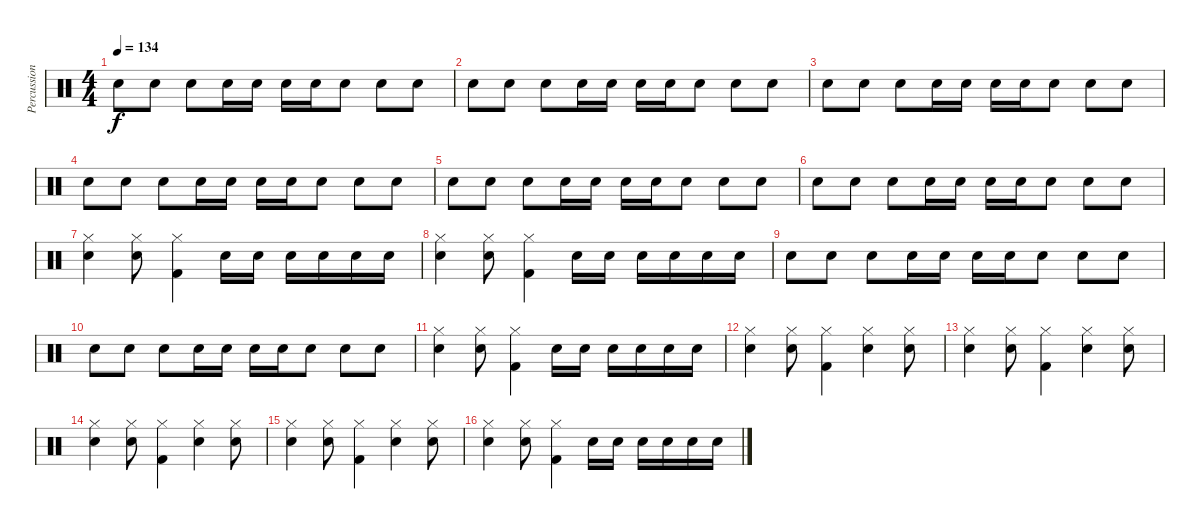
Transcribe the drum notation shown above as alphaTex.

\track ("Percussion" "Percussion") {instrument percussion}
\staff {score}
\articulation defaults
\ts (4 4)
\tempo 134
\clef neutral
\ks c "Electric Snare (hit)".8{dy f} "Electric Snare (hit)".8 "Electric Snare (hit)".8 "Electric Snare (hit)".16 "Electric Snare (hit)".16 "Electric Snare (hit)".16 "Electric Snare (hit)".16 "Electric Snare (hit)".8 "Electric Snare (hit)".8 "Electric Snare (hit)".8
|
"Electric Snare (hit)".8 "Electric Snare (hit)".8 "Electric Snare (hit)".8 "Electric Snare (hit)".16 "Electric Snare (hit)".16 "Electric Snare (hit)".16 "Electric Snare (hit)".16 "Electric Snare (hit)".8 "Electric Snare (hit)".8 "Electric Snare (hit)".8 |
"Electric Snare (hit)".8 "Electric Snare (hit)".8 "Electric Snare (hit)".8 "Electric Snare (hit)".16 "Electric Snare (hit)".16 "Electric Snare (hit)".16 "Electric Snare (hit)".16 "Electric Snare (hit)".8 "Electric Snare (hit)".8 "Electric Snare (hit)".8 |
"Electric Snare (hit)".8 "Electric Snare (hit)".8 "Electric Snare (hit)".8 "Electric Snare (hit)".16 "Electric Snare (hit)".16 "Electric Snare (hit)".16 "Electric Snare (hit)".16 "Electric Snare (hit)".8 "Electric Snare (hit)".8 "Electric Snare (hit)".8 |
"Electric Snare (hit)".8 "Electric Snare (hit)".8 "Electric Snare (hit)".8 "Electric Snare (hit)".16 "Electric Snare (hit)".16 "Electric Snare (hit)".16 "Electric Snare (hit)".16 "Electric Snare (hit)".8 "Electric Snare (hit)".8 "Electric Snare (hit)".8 |
"Electric Snare (hit)".8 "Electric Snare (hit)".8 "Electric Snare (hit)".8 "Electric Snare (hit)".16 "Electric Snare (hit)".16 "Electric Snare (hit)".16 "Electric Snare (hit)".16 "Electric Snare (hit)".8 "Electric Snare (hit)".8 "Electric Snare (hit)".8 |
("Hi-Hat (closed)" "Electric Snare (hit)").4 ("Hi-Hat (closed)" "Electric Snare (hit)").8 ("Hi-Hat (closed)" "Kick (hit) 2").4 "Electric Snare (hit)".16 "Electric Snare (hit)".16 "Electric Snare (hit)".16 "Electric Snare (hit)".16 "Electric Snare (hit)".16 "Electric Snare (hit)".16 |
("Hi-Hat (closed)" "Electric Snare (hit)").4 ("Hi-Hat (closed)" "Electric Snare (hit)").8 ("Hi-Hat (closed)" "Kick (hit) 2").4 "Electric Snare (hit)".16 "Electric Snare (hit)".16 "Electric Snare (hit)".16 "Electric Snare (hit)".16 "Electric Snare (hit)".16 "Electric Snare (hit)".16 |
"Electric Snare (hit)".8 "Electric Snare (hit)".8 "Electric Snare (hit)".8 "Electric Snare (hit)".16 "Electric Snare (hit)".16 "Electric Snare (hit)".16 "Electric Snare (hit)".16 "Electric Snare (hit)".8 "Electric Snare (hit)".8 "Electric Snare (hit)".8 |
"Electric Snare (hit)".8 "Electric Snare (hit)".8 "Electric Snare (hit)".8 "Electric Snare (hit)".16 "Electric Snare (hit)".16 "Electric Snare (hit)".16 "Electric Snare (hit)".16 "Electric Snare (hit)".8 "Electric Snare (hit)".8 "Electric Snare (hit)".8 |
("Hi-Hat (closed)" "Electric Snare (hit)").4 ("Hi-Hat (closed)" "Electric Snare (hit)").8 ("Hi-Hat (closed)" "Kick (hit) 2").4 "Electric Snare (hit)".16 "Electric Snare (hit)".16 "Electric Snare (hit)".16 "Electric Snare (hit)".16 "Electric Snare (hit)".16 "Electric Snare (hit)".16 |
("Hi-Hat (closed)" "Electric Snare (hit)").4 ("Hi-Hat (closed)" "Electric Snare (hit)").8 ("Hi-Hat (closed)" "Kick (hit) 2").4 ("Hi-Hat (closed)" "Electric Snare (hit)").4 ("Hi-Hat (closed)" "Electric Snare (hit)").8 |
("Hi-Hat (closed)" "Electric Snare (hit)").4 ("Hi-Hat (closed)" "Electric Snare (hit)").8 ("Hi-Hat (closed)" "Kick (hit) 2").4 ("Hi-Hat (closed)" "Electric Snare (hit)").4 ("Hi-Hat (closed)" "Electric Snare (hit)").8 |
("Hi-Hat (closed)" "Electric Snare (hit)").4 ("Hi-Hat (closed)" "Electric Snare (hit)").8 ("Hi-Hat (closed)" "Kick (hit) 2").4 ("Hi-Hat (closed)" "Electric Snare (hit)").4 ("Hi-Hat (closed)" "Electric Snare (hit)").8 |
("Hi-Hat (closed)" "Electric Snare (hit)").4 ("Hi-Hat (closed)" "Electric Snare (hit)").8 ("Hi-Hat (closed)" "Kick (hit) 2").4 ("Hi-Hat (closed)" "Electric Snare (hit)").4 ("Hi-Hat (closed)" "Electric Snare (hit)").8 |
("Hi-Hat (closed)" "Electric Snare (hit)").4 ("Hi-Hat (closed)" "Electric Snare (hit)").8 ("Hi-Hat (closed)" "Kick (hit) 2").4 "Electric Snare (hit)".16 "Electric Snare (hit)".16 "Electric Snare (hit)".16 "Electric Snare (hit)".16 "Electric Snare (hit)".16 "Electric Snare (hit)".16
